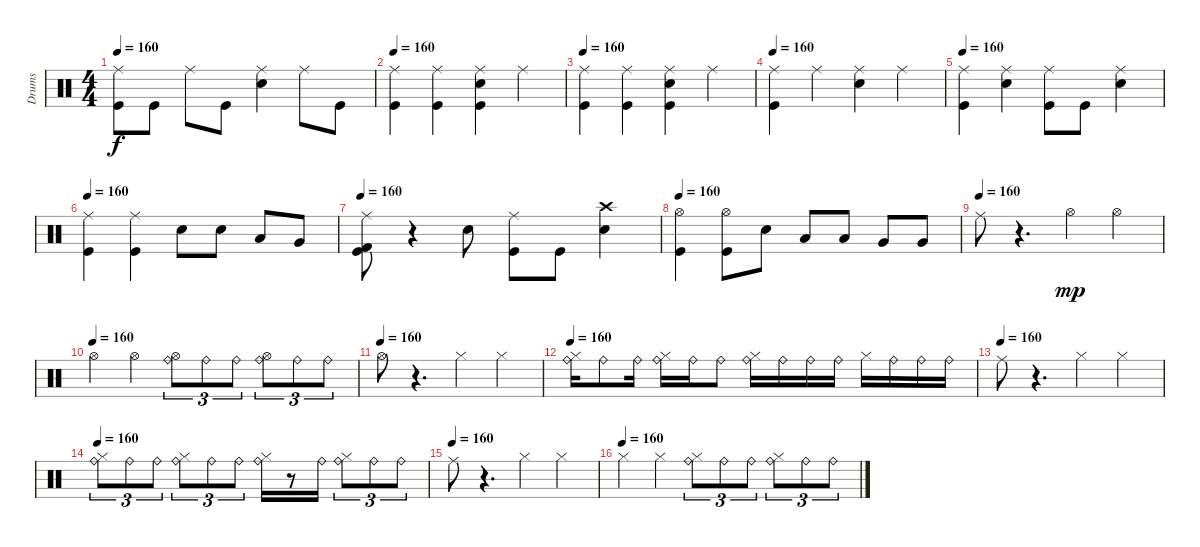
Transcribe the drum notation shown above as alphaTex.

\track ("Drums" "Drums") {instrument percussion}
\staff {score}
\articulation defaults
\ts (4 4)
\tempo 160
\clef neutral
\ks c
("Ride (middle)" "Kick (hit)").8{dy f} "Kick (hit)".8 "Ride (middle)".8 "Kick (hit)".8 ("Ride (middle)" "Snare (hit) 2").4 "Ride (middle)".8 "Kick (hit)".8 |
\tempo 160
("Kick (hit)" "Ride (middle)").4 ("Kick (hit)" "Ride (middle)").4 ("Snare (hit) 2" "Kick (hit)" "Ride (middle)").4 "Ride (middle)".4 |
\tempo 160
("Ride (middle)" "Kick (hit)").4 ("Ride (middle)" "Kick (hit)").4 ("Ride (middle)" "Snare (hit) 2" "Kick (hit)").4 "Ride (middle)".4 |
\tempo 160
("Kick (hit)" "Ride (middle)").4 "Ride (middle)".4 ("Snare (hit) 2" "Ride (middle)").4 "Ride (middle)".4 |
\tempo 160
("Kick (hit)" "Ride (middle)").4 ("Snare (hit) 2" "Ride (middle)").4 ("Kick (hit)" "Ride (middle)").8 "Kick (hit)".8 ("Snare (hit) 2" "Ride (middle)").4 |
\tempo 160
("Kick (hit)" "Ride (middle)").4 ("Kick (hit)" "Ride (middle)").4 "Snare (hit) 2".8 "Snare (hit) 2".8 "Low Tom (hit)".8 "Very Low Tom (hit)".8 |
\tempo 160
("Ride (middle)" "Kick (hit)" "Kick (hit) 2").8 r.4 "Snare (hit) 2".8 ("Kick (hit)" "Ride (middle)").8 "Kick (hit)".8 ("Snare (hit) 2" "Crash high (hit)").4 |
\tempo 160
("Kick (hit)" "Hi-Hat (open)").4 ("Kick (hit)" "Hi-Hat (open)").8 "Snare (hit) 2".8 "Low Tom (hit)".8 "Low Tom (hit)".8 "Very Low Tom (hit)".8 "Very Low Tom (hit)".8 |
\tempo (160)
"Ride (middle)".8 r.4{d} "Hi-Hat (open)".4{dy mp} "Hi-Hat (open)".4 |
\tempo (160)
"Hi-Hat (open)".4 "Hi-Hat (open)".4 ("Hi-Hat (open)" "Ride (bell)").8{tu (3 2)} "Ride (bell)".8{tu (3 2)} "Ride (bell)".8{tu (3 2)} ("Hi-Hat (open)" "Ride (bell)").8{tu (3 2)} "Ride (bell)".8{tu (3 2)} "Ride (bell)".8{tu (3 2)} |
\tempo (160)
"Hi-Hat (open)".8 r.4{d} "Hi-Hat (closed)".4 "Hi-Hat (closed)".4 |
\tempo 160
("Hi-Hat (closed)" "Ride (bell)").16 "Ride (bell)".8 "Ride (bell)".16 ("Hi-Hat (closed)" "Ride (bell)").16 "Ride (bell)".16 "Ride (bell)".8 ("Hi-Hat (closed)" "Ride (bell)").16 "Ride (bell)".16 "Ride (bell)".16 "Ride (bell)".16 "Hi-Hat (closed)".16 "Ride (bell)".16 "Ride (bell)".16 "Ride (bell)".16 |
\tempo (160)
"Ride (middle)".8 r.4{d} "Hi-Hat (closed)".4 "Hi-Hat (closed)".4 |
\tempo 160
("Ride (bell)" "Hi-Hat (closed)").8{tu (3 2)} "Ride (bell)".8{tu (3 2)} "Ride (bell)".8{tu (3 2)} ("Ride (bell)" "Hi-Hat (closed)").8{tu (3 2)} "Ride (bell)".8{tu (3 2)} "Ride (bell)".8{tu (3 2)} ("Ride (bell)" "Hi-Hat (closed)").16 r.8 "Ride (bell)".16 ("Ride (bell)" "Hi-Hat (closed)").8{tu (3 2)} "Ride (bell)".8{tu (3 2)} "Ride (bell)".8{tu (3 2)} |
\tempo (160)
"Ride (middle)".8 r.4{d} "Hi-Hat (closed)".4 "Hi-Hat (closed)".4 |
\tempo (160)
"Hi-Hat (closed)".4 "Hi-Hat (closed)".4 ("Ride (bell)" "Hi-Hat (closed)").8{tu (3 2)} "Ride (bell)".8{tu (3 2)} "Ride (bell)".8{tu (3 2)} ("Ride (bell)" "Hi-Hat (closed)").8{tu (3 2)} "Ride (bell)".8{tu (3 2)} "Ride (bell)".8{tu (3 2)}
